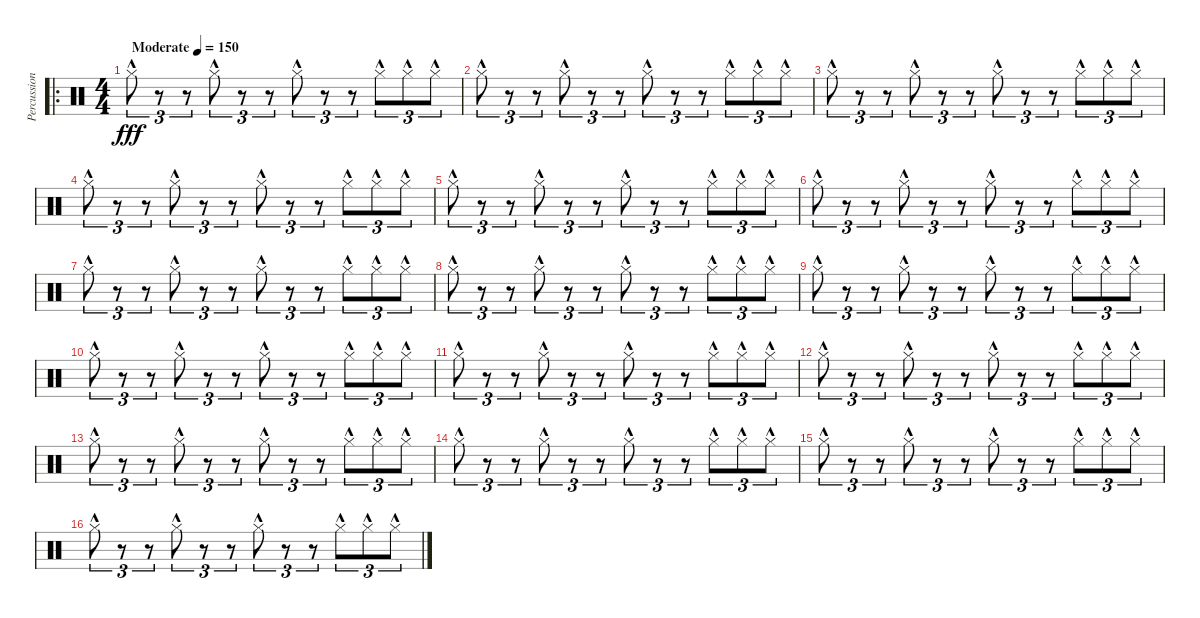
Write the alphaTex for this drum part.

\track ("Percussion" "Percussion") {instrument percussion}
\staff {score}
\articulation defaults
\ro
\ts (4 4)
\tempo (150 "Moderate")
\clef neutral
\ks c "Hi-Hat (closed)"{hac}.8{tu (3 2) dy fff}
r.8{tu (3 2)} r.8{tu (3 2)} "Hi-Hat (closed)"{hac}.8{tu (3 2)} r.8{tu (3 2)} r.8{tu (3 2)} "Hi-Hat (closed)"{hac}.8{tu (3 2)} r.8{tu (3 2)} r.8{tu (3 2)} "Hi-Hat (closed)"{hac}.8{tu (3 2)} "Hi-Hat (closed)"{hac}.8{tu (3 2)} "Hi-Hat (closed)"{hac}.8{tu (3 2)} |
"Hi-Hat (closed)"{hac}.8{tu (3 2)} r.8{tu (3 2)} r.8{tu (3 2)} "Hi-Hat (closed)"{hac}.8{tu (3 2)} r.8{tu (3 2)} r.8{tu (3 2)} "Hi-Hat (closed)"{hac}.8{tu (3 2)} r.8{tu (3 2)} r.8{tu (3 2)} "Hi-Hat (closed)"{hac}.8{tu (3 2)} "Hi-Hat (closed)"{hac}.8{tu (3 2)} "Hi-Hat (closed)"{hac}.8{tu (3 2)} |
"Hi-Hat (closed)"{hac}.8{tu (3 2)} r.8{tu (3 2)} r.8{tu (3 2)} "Hi-Hat (closed)"{hac}.8{tu (3 2)} r.8{tu (3 2)} r.8{tu (3 2)} "Hi-Hat (closed)"{hac}.8{tu (3 2)} r.8{tu (3 2)} r.8{tu (3 2)} "Hi-Hat (closed)"{hac}.8{tu (3 2)} "Hi-Hat (closed)"{hac}.8{tu (3 2)} "Hi-Hat (closed)"{hac}.8{tu (3 2)} |
"Hi-Hat (closed)"{hac}.8{tu (3 2)} r.8{tu (3 2)} r.8{tu (3 2)} "Hi-Hat (closed)"{hac}.8{tu (3 2)} r.8{tu (3 2)} r.8{tu (3 2)} "Hi-Hat (closed)"{hac}.8{tu (3 2)} r.8{tu (3 2)} r.8{tu (3 2)} "Hi-Hat (closed)"{hac}.8{tu (3 2)} "Hi-Hat (closed)"{hac}.8{tu (3 2)} "Hi-Hat (closed)"{hac}.8{tu (3 2)} |
"Hi-Hat (closed)"{hac}.8{tu (3 2)} r.8{tu (3 2)} r.8{tu (3 2)} "Hi-Hat (closed)"{hac}.8{tu (3 2)} r.8{tu (3 2)} r.8{tu (3 2)} "Hi-Hat (closed)"{hac}.8{tu (3 2)} r.8{tu (3 2)} r.8{tu (3 2)} "Hi-Hat (closed)"{hac}.8{tu (3 2)} "Hi-Hat (closed)"{hac}.8{tu (3 2)} "Hi-Hat (closed)"{hac}.8{tu (3 2)} |
"Hi-Hat (closed)"{hac}.8{tu (3 2)} r.8{tu (3 2)} r.8{tu (3 2)} "Hi-Hat (closed)"{hac}.8{tu (3 2)} r.8{tu (3 2)} r.8{tu (3 2)} "Hi-Hat (closed)"{hac}.8{tu (3 2)} r.8{tu (3 2)} r.8{tu (3 2)} "Hi-Hat (closed)"{hac}.8{tu (3 2)} "Hi-Hat (closed)"{hac}.8{tu (3 2)} "Hi-Hat (closed)"{hac}.8{tu (3 2)} |
"Hi-Hat (closed)"{hac}.8{tu (3 2)} r.8{tu (3 2)} r.8{tu (3 2)} "Hi-Hat (closed)"{hac}.8{tu (3 2)} r.8{tu (3 2)} r.8{tu (3 2)} "Hi-Hat (closed)"{hac}.8{tu (3 2)} r.8{tu (3 2)} r.8{tu (3 2)} "Hi-Hat (closed)"{hac}.8{tu (3 2)} "Hi-Hat (closed)"{hac}.8{tu (3 2)} "Hi-Hat (closed)"{hac}.8{tu (3 2)} |
"Hi-Hat (closed)"{hac}.8{tu (3 2)} r.8{tu (3 2)} r.8{tu (3 2)} "Hi-Hat (closed)"{hac}.8{tu (3 2)} r.8{tu (3 2)} r.8{tu (3 2)} "Hi-Hat (closed)"{hac}.8{tu (3 2)} r.8{tu (3 2)} r.8{tu (3 2)} "Hi-Hat (closed)"{hac}.8{tu (3 2)} "Hi-Hat (closed)"{hac}.8{tu (3 2)} "Hi-Hat (closed)"{hac}.8{tu (3 2)} |
"Hi-Hat (closed)"{hac}.8{tu (3 2)} r.8{tu (3 2)} r.8{tu (3 2)} "Hi-Hat (closed)"{hac}.8{tu (3 2)} r.8{tu (3 2)} r.8{tu (3 2)} "Hi-Hat (closed)"{hac}.8{tu (3 2)} r.8{tu (3 2)} r.8{tu (3 2)} "Hi-Hat (closed)"{hac}.8{tu (3 2)} "Hi-Hat (closed)"{hac}.8{tu (3 2)} "Hi-Hat (closed)"{hac}.8{tu (3 2)} |
"Hi-Hat (closed)"{hac}.8{tu (3 2)} r.8{tu (3 2)} r.8{tu (3 2)} "Hi-Hat (closed)"{hac}.8{tu (3 2)} r.8{tu (3 2)} r.8{tu (3 2)} "Hi-Hat (closed)"{hac}.8{tu (3 2)} r.8{tu (3 2)} r.8{tu (3 2)} "Hi-Hat (closed)"{hac}.8{tu (3 2)} "Hi-Hat (closed)"{hac}.8{tu (3 2)} "Hi-Hat (closed)"{hac}.8{tu (3 2)} |
"Hi-Hat (closed)"{hac}.8{tu (3 2)} r.8{tu (3 2)} r.8{tu (3 2)} "Hi-Hat (closed)"{hac}.8{tu (3 2)} r.8{tu (3 2)} r.8{tu (3 2)} "Hi-Hat (closed)"{hac}.8{tu (3 2)} r.8{tu (3 2)} r.8{tu (3 2)} "Hi-Hat (closed)"{hac}.8{tu (3 2)} "Hi-Hat (closed)"{hac}.8{tu (3 2)} "Hi-Hat (closed)"{hac}.8{tu (3 2)} |
"Hi-Hat (closed)"{hac}.8{tu (3 2)} r.8{tu (3 2)} r.8{tu (3 2)} "Hi-Hat (closed)"{hac}.8{tu (3 2)} r.8{tu (3 2)} r.8{tu (3 2)} "Hi-Hat (closed)"{hac}.8{tu (3 2)} r.8{tu (3 2)} r.8{tu (3 2)} "Hi-Hat (closed)"{hac}.8{tu (3 2)} "Hi-Hat (closed)"{hac}.8{tu (3 2)} "Hi-Hat (closed)"{hac}.8{tu (3 2)} |
"Hi-Hat (closed)"{hac}.8{tu (3 2)} r.8{tu (3 2)} r.8{tu (3 2)} "Hi-Hat (closed)"{hac}.8{tu (3 2)} r.8{tu (3 2)} r.8{tu (3 2)} "Hi-Hat (closed)"{hac}.8{tu (3 2)} r.8{tu (3 2)} r.8{tu (3 2)} "Hi-Hat (closed)"{hac}.8{tu (3 2)} "Hi-Hat (closed)"{hac}.8{tu (3 2)} "Hi-Hat (closed)"{hac}.8{tu (3 2)} |
"Hi-Hat (closed)"{hac}.8{tu (3 2)} r.8{tu (3 2)} r.8{tu (3 2)} "Hi-Hat (closed)"{hac}.8{tu (3 2)} r.8{tu (3 2)} r.8{tu (3 2)} "Hi-Hat (closed)"{hac}.8{tu (3 2)} r.8{tu (3 2)} r.8{tu (3 2)} "Hi-Hat (closed)"{hac}.8{tu (3 2)} "Hi-Hat (closed)"{hac}.8{tu (3 2)} "Hi-Hat (closed)"{hac}.8{tu (3 2)} |
"Hi-Hat (closed)"{hac}.8{tu (3 2)} r.8{tu (3 2)} r.8{tu (3 2)} "Hi-Hat (closed)"{hac}.8{tu (3 2)} r.8{tu (3 2)} r.8{tu (3 2)} "Hi-Hat (closed)"{hac}.8{tu (3 2)} r.8{tu (3 2)} r.8{tu (3 2)} "Hi-Hat (closed)"{hac}.8{tu (3 2)} "Hi-Hat (closed)"{hac}.8{tu (3 2)} "Hi-Hat (closed)"{hac}.8{tu (3 2)} |
"Hi-Hat (closed)"{hac}.8{tu (3 2)} r.8{tu (3 2)} r.8{tu (3 2)} "Hi-Hat (closed)"{hac}.8{tu (3 2)} r.8{tu (3 2)} r.8{tu (3 2)} "Hi-Hat (closed)"{hac}.8{tu (3 2)} r.8{tu (3 2)} r.8{tu (3 2)} "Hi-Hat (closed)"{hac}.8{tu (3 2)} "Hi-Hat (closed)"{hac}.8{tu (3 2)} "Hi-Hat (closed)"{hac}.8{tu (3 2)}
